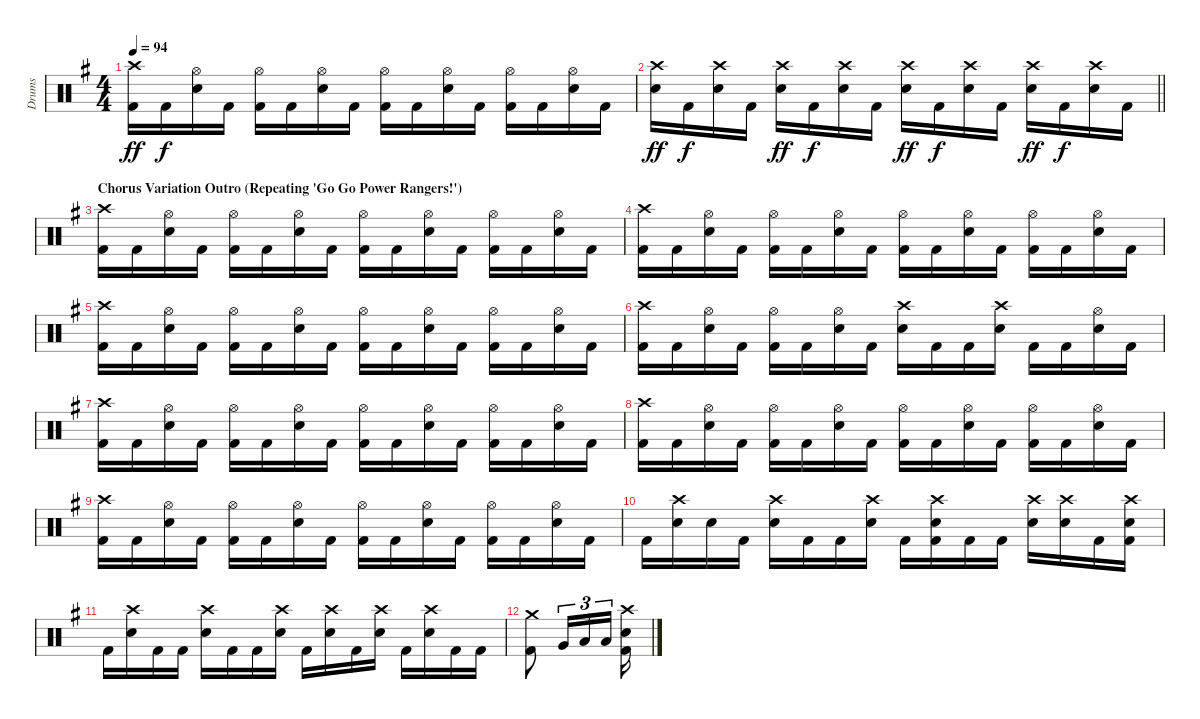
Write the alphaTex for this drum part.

\track ("Drums" "Drums") {instrument percussion}
\staff {score}
\articulation defaults
\ts (4 4)
\tempo 94
\clef neutral
\ks g
("Crash high (hit)" "Kick (hit) 2").16{dy ff} "Kick (hit) 2".16{dy f} ("Hi-Hat (open)" "Snare (hit) 2").16 "Kick (hit) 2".16 ("Hi-Hat (open)" "Kick (hit) 2").16 "Kick (hit) 2".16 ("Hi-Hat (open)" "Snare (hit) 2").16 "Kick (hit) 2".16 ("Hi-Hat (open)" "Kick (hit) 2").16 "Kick (hit) 2".16 ("Hi-Hat (open)" "Snare (hit) 2").16 "Kick (hit) 2".16 ("Hi-Hat (open)" "Kick (hit) 2").16 "Kick (hit) 2".16 ("Hi-Hat (open)" "Snare (hit) 2").16 "Kick (hit) 2".16 |
\barLineRight lightlight
("Crash high (hit)" "Snare (hit) 2").16{dy ff} "Kick (hit) 2".16{dy f} ("Crash high (hit)" "Snare (hit) 2").16 "Kick (hit) 2".16 ("Crash high (hit)" "Snare (hit) 2").16{dy ff} "Kick (hit) 2".16{dy f} ("Crash high (hit)" "Snare (hit) 2").16 "Kick (hit) 2".16 ("Crash high (hit)" "Snare (hit) 2").16{dy ff} "Kick (hit) 2".16{dy f} ("Crash high (hit)" "Snare (hit) 2").16 "Kick (hit) 2".16 ("Crash high (hit)" "Snare (hit) 2").16{dy ff} "Kick (hit) 2".16{dy f} ("Crash high (hit)" "Snare (hit) 2").16 "Kick (hit) 2".16 |
\section ("" "Chorus Variation Outro (Repeating 'Go Go Power Rangers!')")
("Crash high (hit)" "Kick (hit) 2").16 "Kick (hit) 2".16 ("Hi-Hat (open)" "Snare (hit) 2").16 "Kick (hit) 2".16 ("Hi-Hat (open)" "Kick (hit) 2").16 "Kick (hit) 2".16 ("Hi-Hat (open)" "Snare (hit) 2").16 "Kick (hit) 2".16 ("Hi-Hat (open)" "Kick (hit) 2").16 "Kick (hit) 2".16 ("Hi-Hat (open)" "Snare (hit) 2").16 "Kick (hit) 2".16 ("Hi-Hat (open)" "Kick (hit) 2").16 "Kick (hit) 2".16 ("Hi-Hat (open)" "Snare (hit) 2").16 "Kick (hit) 2".16 |
("Crash high (hit)" "Kick (hit) 2").16 "Kick (hit) 2".16 ("Hi-Hat (open)" "Snare (hit) 2").16 "Kick (hit) 2".16 ("Hi-Hat (open)" "Kick (hit) 2").16 "Kick (hit) 2".16 ("Hi-Hat (open)" "Snare (hit) 2").16 "Kick (hit) 2".16 ("Hi-Hat (open)" "Kick (hit) 2").16 "Kick (hit) 2".16 ("Hi-Hat (open)" "Snare (hit) 2").16 "Kick (hit) 2".16 ("Hi-Hat (open)" "Kick (hit) 2").16 "Kick (hit) 2".16 ("Hi-Hat (open)" "Snare (hit) 2").16 "Kick (hit) 2".16 |
("Crash high (hit)" "Kick (hit) 2").16 "Kick (hit) 2".16 ("Hi-Hat (open)" "Snare (hit) 2").16 "Kick (hit) 2".16 ("Hi-Hat (open)" "Kick (hit) 2").16 "Kick (hit) 2".16 ("Hi-Hat (open)" "Snare (hit) 2").16 "Kick (hit) 2".16 ("Hi-Hat (open)" "Kick (hit) 2").16 "Kick (hit) 2".16 ("Hi-Hat (open)" "Snare (hit) 2").16 "Kick (hit) 2".16 ("Hi-Hat (open)" "Kick (hit) 2").16 "Kick (hit) 2".16 ("Hi-Hat (open)" "Snare (hit) 2").16 "Kick (hit) 2".16 |
("Crash high (hit)" "Kick (hit) 2").16 "Kick (hit) 2".16 ("Hi-Hat (open)" "Snare (hit) 2").16 "Kick (hit) 2".16 ("Hi-Hat (open)" "Kick (hit) 2").16 "Kick (hit) 2".16 ("Hi-Hat (open)" "Snare (hit) 2").16 "Kick (hit) 2".16 ("Crash high (hit)" "Snare (hit) 2").16 "Kick (hit) 2".16 "Kick (hit) 2".16 ("Crash high (hit)" "Snare (hit) 2").16 "Kick (hit) 2".16 "Kick (hit) 2".16 ("Hi-Hat (open)" "Snare (hit) 2").16 "Kick (hit) 2".16 |
("Crash high (hit)" "Kick (hit) 2").16 "Kick (hit) 2".16 ("Hi-Hat (open)" "Snare (hit) 2").16 "Kick (hit) 2".16 ("Hi-Hat (open)" "Kick (hit) 2").16 "Kick (hit) 2".16 ("Hi-Hat (open)" "Snare (hit) 2").16 "Kick (hit) 2".16 ("Hi-Hat (open)" "Kick (hit) 2").16 "Kick (hit) 2".16 ("Hi-Hat (open)" "Snare (hit) 2").16 "Kick (hit) 2".16 ("Hi-Hat (open)" "Kick (hit) 2").16 "Kick (hit) 2".16 ("Hi-Hat (open)" "Snare (hit) 2").16 "Kick (hit) 2".16 |
("Crash high (hit)" "Kick (hit) 2").16 "Kick (hit) 2".16 ("Hi-Hat (open)" "Snare (hit) 2").16 "Kick (hit) 2".16 ("Hi-Hat (open)" "Kick (hit) 2").16 "Kick (hit) 2".16 ("Hi-Hat (open)" "Snare (hit) 2").16 "Kick (hit) 2".16 ("Hi-Hat (open)" "Kick (hit) 2").16 "Kick (hit) 2".16 ("Hi-Hat (open)" "Snare (hit) 2").16 "Kick (hit) 2".16 ("Hi-Hat (open)" "Kick (hit) 2").16 "Kick (hit) 2".16 ("Hi-Hat (open)" "Snare (hit) 2").16 "Kick (hit) 2".16 |
("Crash high (hit)" "Kick (hit) 2").16 "Kick (hit) 2".16 ("Hi-Hat (open)" "Snare (hit) 2").16 "Kick (hit) 2".16 ("Hi-Hat (open)" "Kick (hit) 2").16 "Kick (hit) 2".16 ("Hi-Hat (open)" "Snare (hit) 2").16 "Kick (hit) 2".16 ("Hi-Hat (open)" "Kick (hit) 2").16 "Kick (hit) 2".16 ("Hi-Hat (open)" "Snare (hit) 2").16 "Kick (hit) 2".16 ("Hi-Hat (open)" "Kick (hit) 2").16 "Kick (hit) 2".16 ("Hi-Hat (open)" "Snare (hit) 2").16 "Kick (hit) 2".16 |
"Kick (hit) 2".16 ("Crash high (hit)" "Snare (hit) 2").16 "Snare (hit) 2".16 "Kick (hit) 2".16 ("Crash high (hit)" "Snare (hit) 2").16 "Kick (hit) 2".16 "Kick (hit) 2".16 ("Crash high (hit)" "Snare (hit) 2").16 "Kick (hit) 2".16 ("Crash high (hit)" "Snare (hit) 2" "Kick (hit) 2").16 "Kick (hit) 2".16 "Kick (hit) 2".16 ("Crash high (hit)" "Snare (hit) 2").16 ("Crash high (hit)" "Snare (hit) 2").16 "Kick (hit) 2".16 ("Crash high (hit)" "Snare (hit) 2" "Kick (hit) 2").16 |
"Kick (hit) 2".16 ("Crash high (hit)" "Snare (hit) 2").16 "Kick (hit) 2".16 "Kick (hit) 2".16 ("Crash high (hit)" "Snare (hit) 2").16 "Kick (hit) 2".16 "Kick (hit) 2".16 ("Crash high (hit)" "Snare (hit) 2").16 "Kick (hit) 2".16 ("Crash high (hit)" "Snare (hit) 2").16 "Kick (hit) 2".16 ("Crash high (hit)" "Snare (hit) 2").16 "Kick (hit) 2".16 ("Crash high (hit)" "Snare (hit) 2").16 "Kick (hit) 2".16 "Kick (hit) 2".16 |
("Crash medium (hit)" "Kick (hit) 2").8 "Very Low Tom (hit)".16{tu (3 2)} "Low Floor Tom (hit)".16{tu (3 2)} "Low Floor Tom (hit)".16{tu (3 2)} ("Crash high (hit)" "Snare (hit) 2" "Kick (hit) 2").16
